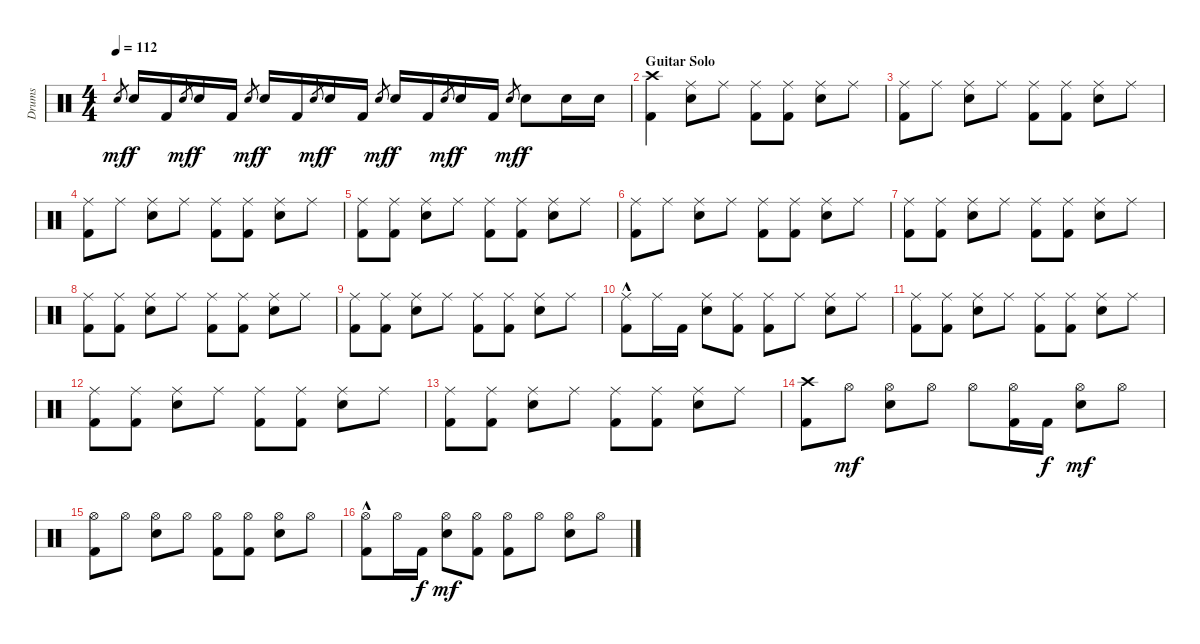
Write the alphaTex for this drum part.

\track ("Drums" "Drums") {instrument percussion}
\staff {score}
\articulation defaults
\ts (4 4)
\tempo 112
\clef neutral
\ks c "Electric Snare (hit)".8{gr dy mf} "Electric Snare (hit)".16{dy f} "Kick (hit) 2".16 "Electric Snare (hit)".8{gr dy mf} "Electric Snare (hit)".16{dy f} "Kick (hit) 2".16 "Electric Snare (hit)".8{gr dy mf} "Electric Snare (hit)".16{dy f} "Kick (hit) 2".16 "Electric Snare (hit)".8{gr dy mf} "Electric Snare (hit)".16{dy f} "Kick (hit) 2".16 "Electric Snare (hit)".8{gr dy mf} "Electric Snare (hit)".16{dy f} "Kick (hit) 2".16 "Electric Snare (hit)".8{gr dy mf} "Electric Snare (hit)".16{dy f} "Kick (hit) 2".16 "Electric Snare (hit)".8{gr dy mf} "Electric Snare (hit)".8{dy f} "Electric Snare (hit)".16 "Electric Snare (hit)".16
|
\section ("" "Guitar Solo")
("Crash high (hit)" "Kick (hit) 2").4 ("Ride (middle)" "Electric Snare (hit)").8 "Ride (middle)".8 ("Ride (middle)" "Kick (hit) 2").8 ("Ride (middle)" "Kick (hit) 2").8 ("Ride (middle)" "Electric Snare (hit)").8 "Ride (middle)".8 |
("Ride (middle)" "Kick (hit) 2").8 "Ride (middle)".8 ("Ride (middle)" "Electric Snare (hit)").8 "Ride (middle)".8 ("Ride (middle)" "Kick (hit) 2").8 ("Ride (middle)" "Kick (hit) 2").8 ("Ride (middle)" "Electric Snare (hit)").8 "Ride (middle)".8 |
("Ride (middle)" "Kick (hit) 2").8 "Ride (middle)".8 ("Ride (middle)" "Electric Snare (hit)").8 "Ride (middle)".8 ("Ride (middle)" "Kick (hit) 2").8 ("Ride (middle)" "Kick (hit) 2").8 ("Ride (middle)" "Electric Snare (hit)").8 "Ride (middle)".8 |
("Ride (middle)" "Kick (hit) 2").8 ("Ride (middle)" "Kick (hit) 2").8 ("Ride (middle)" "Electric Snare (hit)").8 "Ride (middle)".8 ("Ride (middle)" "Kick (hit) 2").8 ("Ride (middle)" "Kick (hit) 2").8 ("Ride (middle)" "Electric Snare (hit)").8 "Ride (middle)".8 |
("Ride (middle)" "Kick (hit) 2").8 "Ride (middle)".8 ("Ride (middle)" "Electric Snare (hit)").8 "Ride (middle)".8 ("Ride (middle)" "Kick (hit) 2").8 ("Ride (middle)" "Kick (hit) 2").8 ("Ride (middle)" "Electric Snare (hit)").8 "Ride (middle)".8 |
("Ride (middle)" "Kick (hit) 2").8 ("Ride (middle)" "Kick (hit) 2").8 ("Ride (middle)" "Electric Snare (hit)").8 "Ride (middle)".8 ("Ride (middle)" "Kick (hit) 2").8 ("Ride (middle)" "Kick (hit) 2").8 ("Ride (middle)" "Electric Snare (hit)").8 "Ride (middle)".8 |
("Ride (middle)" "Kick (hit) 2").8 ("Ride (middle)" "Kick (hit) 2").8 ("Ride (middle)" "Electric Snare (hit)").8 "Ride (middle)".8 ("Ride (middle)" "Kick (hit) 2").8 ("Ride (middle)" "Kick (hit) 2").8 ("Ride (middle)" "Electric Snare (hit)").8 "Ride (middle)".8 |
("Ride (middle)" "Kick (hit) 2").8 ("Ride (middle)" "Kick (hit) 2").8 ("Ride (middle)" "Electric Snare (hit)").8 "Ride (middle)".8 ("Ride (middle)" "Kick (hit) 2").8 ("Ride (middle)" "Kick (hit) 2").8 ("Ride (middle)" "Electric Snare (hit)").8 "Ride (middle)".8 |
("Ride (middle)" "Kick (hit) 2"{hac}).8 "Ride (middle)".16 "Kick (hit) 2".16 ("Ride (middle)" "Electric Snare (hit)").8 ("Ride (middle)" "Kick (hit) 2").8 ("Ride (middle)" "Kick (hit) 2").8 "Ride (middle)".8 ("Ride (middle)" "Electric Snare (hit)").8 "Ride (middle)".8 |
("Ride (middle)" "Kick (hit) 2").8 ("Ride (middle)" "Kick (hit) 2").8 ("Ride (middle)" "Electric Snare (hit)").8 "Ride (middle)".8 ("Ride (middle)" "Kick (hit) 2").8 ("Ride (middle)" "Kick (hit) 2").8 ("Ride (middle)" "Electric Snare (hit)").8 "Ride (middle)".8 |
("Ride (middle)" "Kick (hit) 2").8 ("Ride (middle)" "Kick (hit) 2").8 ("Ride (middle)" "Electric Snare (hit)").8 "Ride (middle)".8 ("Ride (middle)" "Kick (hit) 2").8 ("Ride (middle)" "Kick (hit) 2").8 ("Ride (middle)" "Electric Snare (hit)").8 "Ride (middle)".8 |
("Ride (middle)" "Kick (hit) 2").8 ("Ride (middle)" "Kick (hit) 2").8 ("Ride (middle)" "Electric Snare (hit)").8 "Ride (middle)".8 ("Ride (middle)" "Kick (hit) 2").8 ("Ride (middle)" "Kick (hit) 2").8 ("Ride (middle)" "Electric Snare (hit)").8 "Ride (middle)".8 |
("Crash high (hit)" "Kick (hit) 2").8 "Hi-Hat (open)".8{dy mf} ("Hi-Hat (open)" "Electric Snare (hit)").8 "Hi-Hat (open)".8 "Hi-Hat (open)".8 ("Hi-Hat (open)" "Kick (hit) 2").16 "Kick (hit) 2".16{dy f} ("Hi-Hat (open)" "Electric Snare (hit)").8{dy mf} "Hi-Hat (open)".8 |
("Hi-Hat (open)" "Kick (hit) 2").8 "Hi-Hat (open)".8 ("Hi-Hat (open)" "Electric Snare (hit)").8 "Hi-Hat (open)".8 ("Hi-Hat (open)" "Kick (hit) 2").8 ("Hi-Hat (open)" "Kick (hit) 2").8 ("Hi-Hat (open)" "Electric Snare (hit)").8 "Hi-Hat (open)".8 |
("Hi-Hat (open)" "Kick (hit) 2"{hac}).8 "Hi-Hat (open)".16 "Kick (hit) 2".16{dy f} ("Hi-Hat (open)" "Electric Snare (hit)").8{dy mf} ("Hi-Hat (open)" "Kick (hit) 2").8 ("Hi-Hat (open)" "Kick (hit) 2").8 "Hi-Hat (open)".8 ("Hi-Hat (open)" "Electric Snare (hit)").8 "Hi-Hat (open)".8
